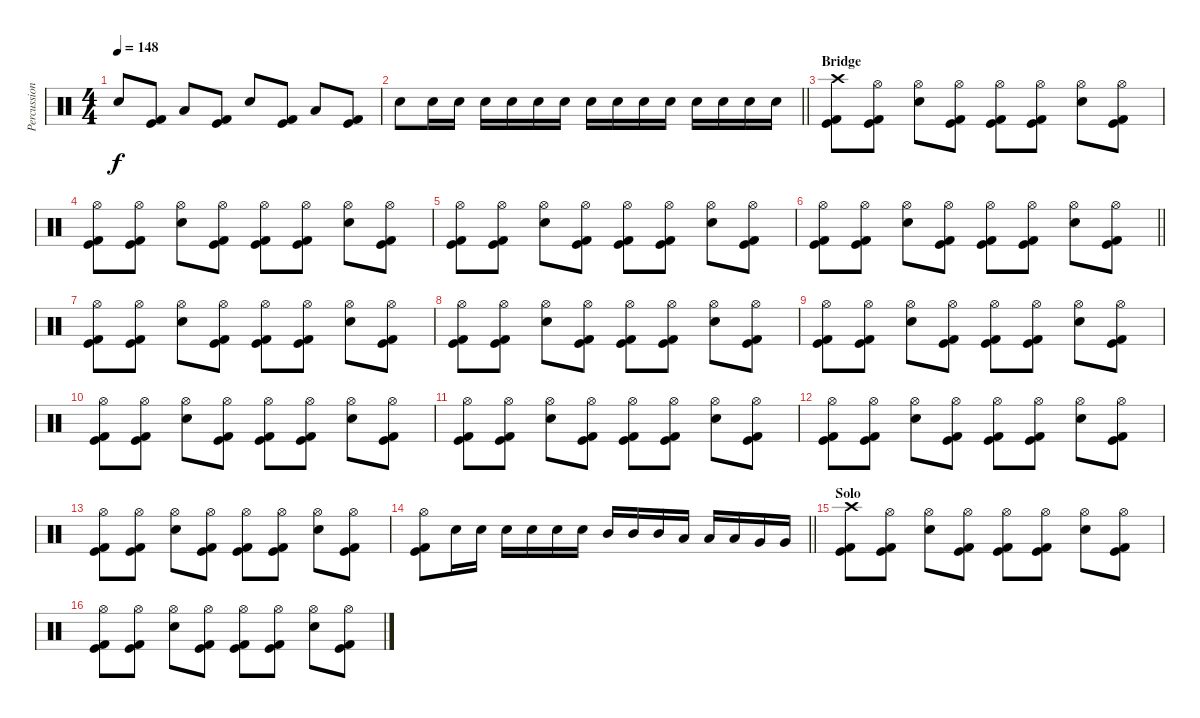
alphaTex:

\track ("Percussion" "Percussion") {instrument percussion}
\staff {score}
\articulation defaults
\ts (4 4)
\tempo 148
\clef neutral
\ks c "Electric Snare (hit)".8{dy f}
("Kick (hit)" "Kick (hit) 2").8 "Low Floor Tom (hit)".8 ("Kick (hit)" "Kick (hit) 2").8 "Electric Snare (hit)".8 ("Kick (hit)" "Kick (hit) 2").8 "Low Floor Tom (hit)".8 ("Kick (hit)" "Kick (hit) 2").8 |
\barLineRight lightlight "Electric Snare (hit)".8 "Electric Snare (hit)".16 "Electric Snare (hit)".16 "Electric Snare (hit)".16 "Electric Snare (hit)".16 "Electric Snare (hit)".16 "Electric Snare (hit)".16 "Electric Snare (hit)".16 "Electric Snare (hit)".16 "Electric Snare (hit)".16 "Electric Snare (hit)".16 "Electric Snare (hit)".16 "Electric Snare (hit)".16 "Electric Snare (hit)".16 "Electric Snare (hit)".16
|
\section ("" "Bridge")
("Crash high (hit)" "Kick (hit)" "Kick (hit) 2").8 ("Hi-Hat (open)" "Kick (hit)" "Kick (hit) 2").8 ("Hi-Hat (open)" "Electric Snare (hit)").8 ("Hi-Hat (open)" "Kick (hit)" "Kick (hit) 2").8 ("Hi-Hat (open)" "Kick (hit)" "Kick (hit) 2").8 ("Hi-Hat (open)" "Kick (hit)" "Kick (hit) 2").8 ("Hi-Hat (open)" "Electric Snare (hit)").8 ("Hi-Hat (open)" "Kick (hit)" "Kick (hit) 2").8 |
("Hi-Hat (open)" "Kick (hit)" "Kick (hit) 2").8 ("Hi-Hat (open)" "Kick (hit)" "Kick (hit) 2").8 ("Hi-Hat (open)" "Electric Snare (hit)").8 ("Hi-Hat (open)" "Kick (hit)" "Kick (hit) 2").8 ("Hi-Hat (open)" "Kick (hit)" "Kick (hit) 2").8 ("Hi-Hat (open)" "Kick (hit)" "Kick (hit) 2").8 ("Hi-Hat (open)" "Electric Snare (hit)").8 ("Hi-Hat (open)" "Kick (hit)" "Kick (hit) 2").8 |
("Hi-Hat (open)" "Kick (hit)" "Kick (hit) 2").8 ("Hi-Hat (open)" "Kick (hit)" "Kick (hit) 2").8 ("Hi-Hat (open)" "Electric Snare (hit)").8 ("Hi-Hat (open)" "Kick (hit)" "Kick (hit) 2").8 ("Hi-Hat (open)" "Kick (hit)" "Kick (hit) 2").8 ("Hi-Hat (open)" "Kick (hit)" "Kick (hit) 2").8 ("Hi-Hat (open)" "Electric Snare (hit)").8 ("Hi-Hat (open)" "Kick (hit)" "Kick (hit) 2").8 |
\barLineRight lightlight
("Hi-Hat (open)" "Kick (hit)" "Kick (hit) 2").8 ("Hi-Hat (open)" "Kick (hit)" "Kick (hit) 2").8 ("Hi-Hat (open)" "Electric Snare (hit)").8 ("Hi-Hat (open)" "Kick (hit)" "Kick (hit) 2").8 ("Hi-Hat (open)" "Kick (hit)" "Kick (hit) 2").8 ("Hi-Hat (open)" "Kick (hit)" "Kick (hit) 2").8 ("Hi-Hat (open)" "Electric Snare (hit)").8 ("Hi-Hat (open)" "Kick (hit)" "Kick (hit) 2").8 |
\section ("" "")
("Hi-Hat (open)" "Kick (hit)" "Kick (hit) 2").8 ("Hi-Hat (open)" "Kick (hit)" "Kick (hit) 2").8 ("Hi-Hat (open)" "Electric Snare (hit)").8 ("Hi-Hat (open)" "Kick (hit)" "Kick (hit) 2").8 ("Hi-Hat (open)" "Kick (hit)" "Kick (hit) 2").8 ("Hi-Hat (open)" "Kick (hit)" "Kick (hit) 2").8 ("Hi-Hat (open)" "Electric Snare (hit)").8 ("Hi-Hat (open)" "Kick (hit)" "Kick (hit) 2").8 |
("Hi-Hat (open)" "Kick (hit)" "Kick (hit) 2").8 ("Hi-Hat (open)" "Kick (hit)" "Kick (hit) 2").8 ("Hi-Hat (open)" "Electric Snare (hit)").8 ("Hi-Hat (open)" "Kick (hit)" "Kick (hit) 2").8 ("Hi-Hat (open)" "Kick (hit)" "Kick (hit) 2").8 ("Hi-Hat (open)" "Kick (hit)" "Kick (hit) 2").8 ("Hi-Hat (open)" "Electric Snare (hit)").8 ("Hi-Hat (open)" "Kick (hit)" "Kick (hit) 2").8 |
("Hi-Hat (open)" "Kick (hit)" "Kick (hit) 2").8 ("Hi-Hat (open)" "Kick (hit)" "Kick (hit) 2").8 ("Hi-Hat (open)" "Electric Snare (hit)").8 ("Hi-Hat (open)" "Kick (hit)" "Kick (hit) 2").8 ("Hi-Hat (open)" "Kick (hit)" "Kick (hit) 2").8 ("Hi-Hat (open)" "Kick (hit)" "Kick (hit) 2").8 ("Hi-Hat (open)" "Electric Snare (hit)").8 ("Hi-Hat (open)" "Kick (hit)" "Kick (hit) 2").8 |
("Hi-Hat (open)" "Kick (hit)" "Kick (hit) 2").8 ("Hi-Hat (open)" "Kick (hit)" "Kick (hit) 2").8 ("Hi-Hat (open)" "Electric Snare (hit)").8 ("Hi-Hat (open)" "Kick (hit)" "Kick (hit) 2").8 ("Hi-Hat (open)" "Kick (hit)" "Kick (hit) 2").8 ("Hi-Hat (open)" "Kick (hit)" "Kick (hit) 2").8 ("Hi-Hat (open)" "Electric Snare (hit)").8 ("Hi-Hat (open)" "Kick (hit)" "Kick (hit) 2").8 |
("Hi-Hat (open)" "Kick (hit)" "Kick (hit) 2").8 ("Hi-Hat (open)" "Kick (hit)" "Kick (hit) 2").8 ("Hi-Hat (open)" "Electric Snare (hit)").8 ("Hi-Hat (open)" "Kick (hit)" "Kick (hit) 2").8 ("Hi-Hat (open)" "Kick (hit)" "Kick (hit) 2").8 ("Hi-Hat (open)" "Kick (hit)" "Kick (hit) 2").8 ("Hi-Hat (open)" "Electric Snare (hit)").8 ("Hi-Hat (open)" "Kick (hit)" "Kick (hit) 2").8 |
("Hi-Hat (open)" "Kick (hit)" "Kick (hit) 2").8 ("Hi-Hat (open)" "Kick (hit)" "Kick (hit) 2").8 ("Hi-Hat (open)" "Electric Snare (hit)").8 ("Hi-Hat (open)" "Kick (hit)" "Kick (hit) 2").8 ("Hi-Hat (open)" "Kick (hit)" "Kick (hit) 2").8 ("Hi-Hat (open)" "Kick (hit)" "Kick (hit) 2").8 ("Hi-Hat (open)" "Electric Snare (hit)").8 ("Hi-Hat (open)" "Kick (hit)" "Kick (hit) 2").8 |
("Hi-Hat (open)" "Kick (hit)" "Kick (hit) 2").8 ("Hi-Hat (open)" "Kick (hit)" "Kick (hit) 2").8 ("Hi-Hat (open)" "Electric Snare (hit)").8 ("Hi-Hat (open)" "Kick (hit)" "Kick (hit) 2").8 ("Hi-Hat (open)" "Kick (hit)" "Kick (hit) 2").8 ("Hi-Hat (open)" "Kick (hit)" "Kick (hit) 2").8 ("Hi-Hat (open)" "Electric Snare (hit)").8 ("Hi-Hat (open)" "Kick (hit)" "Kick (hit) 2").8 |
\barLineRight lightlight
("Hi-Hat (open)" "Kick (hit)" "Kick (hit) 2").8 "Electric Snare (hit)".16 "Electric Snare (hit)".16 "Electric Snare (hit)".16 "Electric Snare (hit)".16 "Electric Snare (hit)".16 "Electric Snare (hit)".16 "Mid Tom (hit)".16 "Mid Tom (hit)".16 "Mid Tom (hit)".16 "Low Tom (hit)".16 "Low Tom (hit)".16 "Low Tom (hit)".16 "Very Low Tom (hit)".16 "Very Low Tom (hit)".16 |
\section ("" "Solo")
("Crash high (hit)" "Kick (hit)" "Kick (hit) 2").8 ("Hi-Hat (open)" "Kick (hit)" "Kick (hit) 2").8 ("Hi-Hat (open)" "Electric Snare (hit)").8 ("Hi-Hat (open)" "Kick (hit)" "Kick (hit) 2").8 ("Hi-Hat (open)" "Kick (hit)" "Kick (hit) 2").8 ("Hi-Hat (open)" "Kick (hit)" "Kick (hit) 2").8 ("Hi-Hat (open)" "Electric Snare (hit)").8 ("Hi-Hat (open)" "Kick (hit)" "Kick (hit) 2").8 |
("Hi-Hat (open)" "Kick (hit)" "Kick (hit) 2").8 ("Hi-Hat (open)" "Kick (hit)" "Kick (hit) 2").8 ("Hi-Hat (open)" "Electric Snare (hit)").8 ("Hi-Hat (open)" "Kick (hit)" "Kick (hit) 2").8 ("Hi-Hat (open)" "Kick (hit)" "Kick (hit) 2").8 ("Hi-Hat (open)" "Kick (hit)" "Kick (hit) 2").8 ("Hi-Hat (open)" "Electric Snare (hit)").8 ("Hi-Hat (open)" "Kick (hit)" "Kick (hit) 2").8
